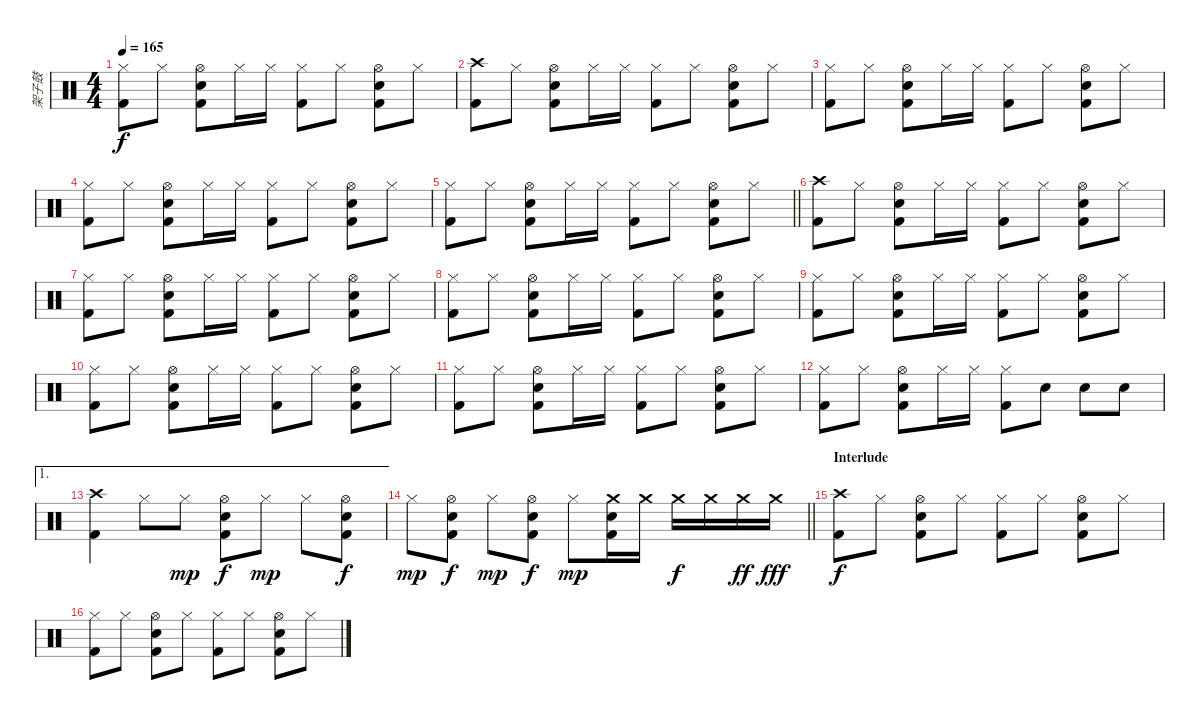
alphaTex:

\track ("架子鼓" "架子鼓") {instrument percussion}
\staff {score}
\articulation defaults
\ts (4 4)
\tempo 165
\clef neutral
\ks c
("Hi-Hat (closed)" "Kick (hit) 2").8{dy f} "Hi-Hat (closed)".8 ("Hi-Hat (open)" "Electric Snare (hit)" "Kick (hit) 2").8 "Hi-Hat (closed)".16 "Hi-Hat (closed)".16 ("Hi-Hat (closed)" "Kick (hit) 2").8 "Hi-Hat (closed)".8 ("Hi-Hat (open)" "Electric Snare (hit)" "Kick (hit) 2").8 "Hi-Hat (closed)".8 |
("Crash high (hit)" "Kick (hit) 2").8 "Hi-Hat (closed)".8 ("Hi-Hat (open)" "Electric Snare (hit)" "Kick (hit) 2").8 "Hi-Hat (closed)".16 "Hi-Hat (closed)".16 ("Hi-Hat (closed)" "Kick (hit) 2").8 "Hi-Hat (closed)".8 ("Hi-Hat (open)" "Electric Snare (hit)" "Kick (hit) 2").8 "Hi-Hat (closed)".8 |
("Hi-Hat (closed)" "Kick (hit) 2").8 "Hi-Hat (closed)".8 ("Hi-Hat (open)" "Electric Snare (hit)" "Kick (hit) 2").8 "Hi-Hat (closed)".16 "Hi-Hat (closed)".16 ("Hi-Hat (closed)" "Kick (hit) 2").8 "Hi-Hat (closed)".8 ("Hi-Hat (open)" "Electric Snare (hit)" "Kick (hit) 2").8 "Hi-Hat (closed)".8 |
("Hi-Hat (closed)" "Kick (hit) 2").8 "Hi-Hat (closed)".8 ("Hi-Hat (open)" "Electric Snare (hit)" "Kick (hit) 2").8 "Hi-Hat (closed)".16 "Hi-Hat (closed)".16 ("Hi-Hat (closed)" "Kick (hit) 2").8 "Hi-Hat (closed)".8 ("Hi-Hat (open)" "Electric Snare (hit)" "Kick (hit) 2").8 "Hi-Hat (closed)".8 |
\barLineRight lightlight
("Hi-Hat (closed)" "Kick (hit) 2").8 "Hi-Hat (closed)".8 ("Hi-Hat (open)" "Electric Snare (hit)" "Kick (hit) 2").8 "Hi-Hat (closed)".16 "Hi-Hat (closed)".16 ("Hi-Hat (closed)" "Kick (hit) 2").8 "Hi-Hat (closed)".8 ("Hi-Hat (open)" "Electric Snare (hit)" "Kick (hit) 2").8 "Hi-Hat (closed)".8 |
("Crash high (hit)" "Kick (hit) 2").8 "Hi-Hat (closed)".8 ("Hi-Hat (open)" "Electric Snare (hit)" "Kick (hit) 2").8 "Hi-Hat (closed)".16 "Hi-Hat (closed)".16 ("Hi-Hat (closed)" "Kick (hit) 2").8 "Hi-Hat (closed)".8 ("Hi-Hat (open)" "Electric Snare (hit)" "Kick (hit) 2").8 "Hi-Hat (closed)".8 |
("Hi-Hat (closed)" "Kick (hit) 2").8 "Hi-Hat (closed)".8 ("Hi-Hat (open)" "Electric Snare (hit)" "Kick (hit) 2").8 "Hi-Hat (closed)".16 "Hi-Hat (closed)".16 ("Hi-Hat (closed)" "Kick (hit) 2").8 "Hi-Hat (closed)".8 ("Hi-Hat (open)" "Electric Snare (hit)" "Kick (hit) 2").8 "Hi-Hat (closed)".8 |
("Hi-Hat (closed)" "Kick (hit) 2").8 "Hi-Hat (closed)".8 ("Hi-Hat (open)" "Electric Snare (hit)" "Kick (hit) 2").8 "Hi-Hat (closed)".16 "Hi-Hat (closed)".16 ("Hi-Hat (closed)" "Kick (hit) 2").8 "Hi-Hat (closed)".8 ("Hi-Hat (open)" "Electric Snare (hit)" "Kick (hit) 2").8 "Hi-Hat (closed)".8 |
("Hi-Hat (closed)" "Kick (hit) 2").8 "Hi-Hat (closed)".8 ("Hi-Hat (open)" "Electric Snare (hit)" "Kick (hit) 2").8 "Hi-Hat (closed)".16 "Hi-Hat (closed)".16 ("Hi-Hat (closed)" "Kick (hit) 2").8 "Hi-Hat (closed)".8 ("Hi-Hat (open)" "Electric Snare (hit)" "Kick (hit) 2").8 "Hi-Hat (closed)".8 |
("Hi-Hat (closed)" "Kick (hit) 2").8 "Hi-Hat (closed)".8 ("Hi-Hat (open)" "Electric Snare (hit)" "Kick (hit) 2").8 "Hi-Hat (closed)".16 "Hi-Hat (closed)".16 ("Hi-Hat (closed)" "Kick (hit) 2").8 "Hi-Hat (closed)".8 ("Hi-Hat (open)" "Electric Snare (hit)" "Kick (hit) 2").8 "Hi-Hat (closed)".8 |
("Hi-Hat (closed)" "Kick (hit) 2").8 "Hi-Hat (closed)".8 ("Hi-Hat (open)" "Electric Snare (hit)" "Kick (hit) 2").8 "Hi-Hat (closed)".16 "Hi-Hat (closed)".16 ("Hi-Hat (closed)" "Kick (hit) 2").8 "Hi-Hat (closed)".8 ("Hi-Hat (open)" "Electric Snare (hit)" "Kick (hit) 2").8 "Hi-Hat (closed)".8 |
("Hi-Hat (closed)" "Kick (hit) 2").8 "Hi-Hat (closed)".8 ("Hi-Hat (open)" "Electric Snare (hit)" "Kick (hit) 2").8 "Hi-Hat (closed)".16 "Hi-Hat (closed)".16 ("Hi-Hat (closed)" "Kick (hit) 2").8 "Electric Snare (hit)".8 "Electric Snare (hit)".8 "Electric Snare (hit)".8 |
\ae 1
("Crash high (hit)" "Kick (hit) 2").4 "Hi-Hat (closed)".8 "Hi-Hat (closed)".8{dy mp} ("Hi-Hat (open)" "Electric Snare (hit)" "Kick (hit) 2").8{dy f} "Hi-Hat (closed)".8{dy mp} "Hi-Hat (closed)".8 ("Hi-Hat (open)" "Electric Snare (hit)" "Kick (hit) 2").8{dy f} |
\barLineRight lightlight "Hi-Hat (closed)".8{dy mp}
("Hi-Hat (open)" "Electric Snare (hit)" "Kick (hit) 2").8{dy f} "Hi-Hat (closed)".8{dy mp} ("Hi-Hat (open)" "Electric Snare (hit)" "Kick (hit) 2").8{dy f} "Hi-Hat (closed)".8{dy mp} ("Crash medium (hit)" "Electric Snare (hit)" "Kick (hit) 2").16 "Crash medium (hit)".16 "Crash medium (hit)".16{dy f} "Crash medium (hit)".16 "Crash medium (hit)".16{dy ff} "Crash medium (hit)".16{dy fff} |
\section ("" "Interlude")
("Crash high (hit)" "Kick (hit) 2").8{dy f} "Hi-Hat (closed)".8 ("Hi-Hat (open)" "Electric Snare (hit)" "Kick (hit) 2").8 "Hi-Hat (closed)".8 ("Hi-Hat (closed)" "Kick (hit) 2").8 "Hi-Hat (closed)".8 ("Hi-Hat (open)" "Electric Snare (hit)" "Kick (hit) 2").8 "Hi-Hat (closed)".8 |
("Hi-Hat (closed)" "Kick (hit) 2").8 "Hi-Hat (closed)".8 ("Hi-Hat (open)" "Electric Snare (hit)" "Kick (hit) 2").8 "Hi-Hat (closed)".8 ("Hi-Hat (closed)" "Kick (hit) 2").8 "Hi-Hat (closed)".8 ("Hi-Hat (open)" "Electric Snare (hit)" "Kick (hit) 2").8 "Hi-Hat (closed)".8
